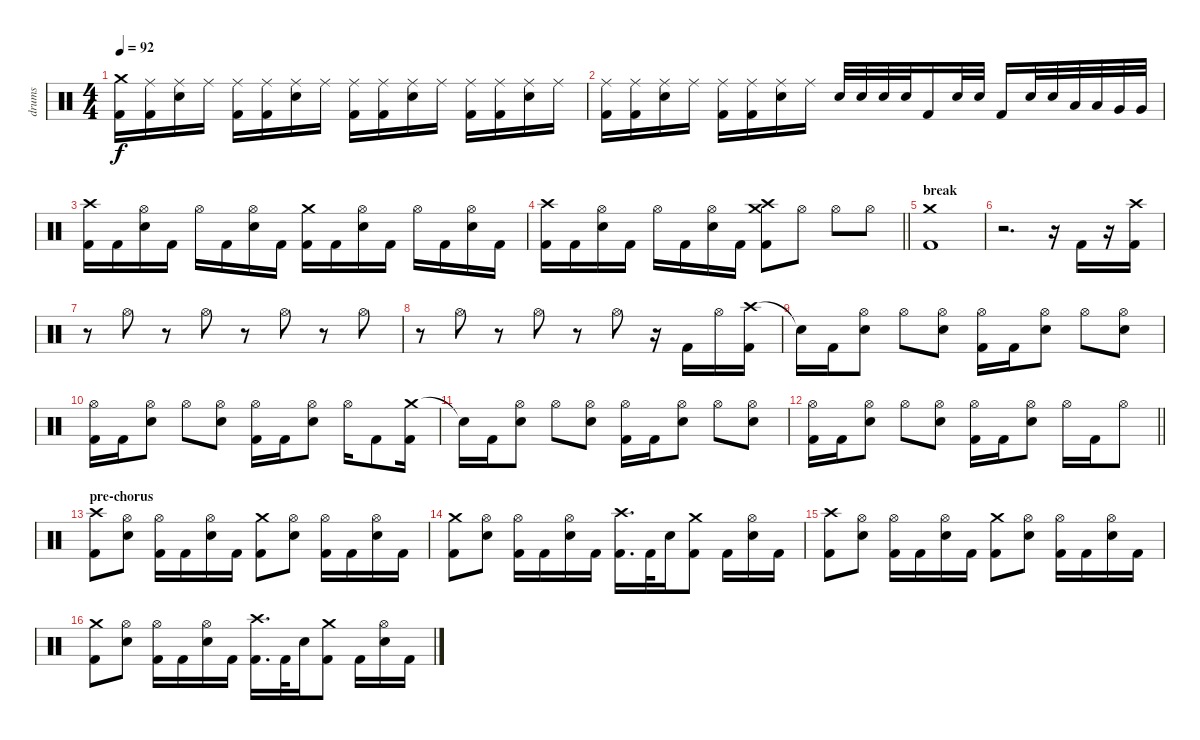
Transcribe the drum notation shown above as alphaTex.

\track ("drums" "drums") {instrument percussion}
\staff {score}
\articulation defaults
\ts (4 4)
\tempo 92
\clef neutral
\ks c
("Crash medium (hit)" "Kick (hit) 2").16{dy f} ("Ride (middle)" "Kick (hit) 2").16 ("Ride (middle)" "Snare (hit) 2").16 "Ride (middle)".16 ("Ride (middle)" "Kick (hit) 2").16 ("Ride (middle)" "Kick (hit) 2").16 ("Ride (middle)" "Snare (hit) 2").16 "Ride (middle)".16 ("Ride (middle)" "Kick (hit) 2").16 ("Ride (middle)" "Kick (hit) 2").16 ("Ride (middle)" "Snare (hit) 2").16 "Ride (middle)".16 ("Ride (middle)" "Kick (hit) 2").16 ("Ride (middle)" "Kick (hit) 2").16 ("Ride (middle)" "Snare (hit) 2").16 "Ride (middle)".16 |
("Ride (middle)" "Kick (hit) 2").16 ("Ride (middle)" "Kick (hit) 2").16 ("Ride (middle)" "Snare (hit) 2").16 "Ride (middle)".16 ("Ride (middle)" "Kick (hit) 2").16 ("Ride (middle)" "Kick (hit) 2").16 ("Ride (middle)" "Snare (hit) 2").16 "Ride (middle)".16 "Snare (hit) 2".32 "Snare (hit) 2".32 "Snare (hit) 2".32 "Snare (hit) 2".32 "Kick (hit) 2".16 "Snare (hit) 2".32 "Snare (hit) 2".32 "Kick (hit) 2".16 "Snare (hit) 2".32 "Snare (hit) 2".32 "Low Tom (hit)".32 "Low Tom (hit)".32 "Very Low Tom (hit)".32 "Very Low Tom (hit)".32 |
("Crash high (hit)" "Kick (hit) 2").16 "Kick (hit) 2".16 ("Hi-Hat (open)" "Snare (hit) 2").16 "Kick (hit) 2".16 "Hi-Hat (open)".16 "Kick (hit) 2".16 ("Hi-Hat (open)" "Snare (hit) 2").16 "Kick (hit) 2".16 ("Crash medium (hit)" "Kick (hit) 2").16 "Kick (hit) 2".16 ("Hi-Hat (open)" "Snare (hit) 2").16 "Kick (hit) 2".16 "Hi-Hat (open)".16 "Kick (hit) 2".16 ("Hi-Hat (open)" "Snare (hit) 2").16 "Kick (hit) 2".16 |
\barLineRight lightlight
("Crash high (hit)" "Kick (hit) 2").16 "Kick (hit) 2".16 ("Hi-Hat (open)" "Snare (hit) 2").16 "Kick (hit) 2".16 "Hi-Hat (open)".16 "Kick (hit) 2".16 ("Hi-Hat (open)" "Snare (hit) 2").16 "Kick (hit) 2".16 ("Crash medium (hit)" "Crash high (hit)" "Kick (hit) 2").8 "Hi-Hat (open)".8 "Hi-Hat (open)".8 "Hi-Hat (open)".8 |
\section ("" "break")
("Crash medium (hit)" "Kick (hit) 2").1 |
r.2{d} r.16 "Kick (hit) 2".16 r.16 ("Crash high (hit)" "Kick (hit) 2").16 |
r.8 "Hi-Hat (open)".8 r.8 "Hi-Hat (open)".8 r.8 "Hi-Hat (open)".8 r.8 "Hi-Hat (open)".8 |
r.8 "Hi-Hat (open)".8 r.8 "Hi-Hat (open)".8 r.8 "Hi-Hat (open)".8 r.16 "Kick (hit) 2".16 "Hi-Hat (open)".16 ("Crash high (hit)" "Kick (hit) 2").16 |
"Snare (hit)"{t}.16 "Kick (hit) 2".16 ("Hi-Hat (open)" "Snare (hit) 2").8 "Hi-Hat (open)".8 ("Hi-Hat (open)" "Snare (hit) 2").8 ("Hi-Hat (open)" "Kick (hit) 2").16 "Kick (hit) 2".16 ("Hi-Hat (open)" "Snare (hit) 2").8 "Hi-Hat (open)".8 ("Hi-Hat (open)" "Snare (hit) 2").8 |
("Hi-Hat (open)" "Kick (hit) 2").16 "Kick (hit) 2".16 ("Hi-Hat (open)" "Snare (hit) 2").8 "Hi-Hat (open)".8 ("Hi-Hat (open)" "Snare (hit) 2").8 ("Hi-Hat (open)" "Kick (hit) 2").16 "Kick (hit) 2".16 ("Hi-Hat (open)" "Snare (hit) 2").8 "Hi-Hat (open)".16 "Kick (hit) 2".8 ("Crash medium (hit)" "Kick (hit) 2").16 |
"Snare (hit)"{t}.16 "Kick (hit) 2".16 ("Hi-Hat (open)" "Snare (hit) 2").8 "Hi-Hat (open)".8 ("Hi-Hat (open)" "Snare (hit) 2").8 ("Hi-Hat (open)" "Kick (hit) 2").16 "Kick (hit) 2".16 ("Hi-Hat (open)" "Snare (hit) 2").8 "Hi-Hat (open)".8 ("Hi-Hat (open)" "Snare (hit) 2").8 |
\barLineRight lightlight
("Hi-Hat (open)" "Kick (hit) 2").16 "Kick (hit) 2".16 ("Hi-Hat (open)" "Snare (hit) 2").8 "Hi-Hat (open)".8 ("Hi-Hat (open)" "Snare (hit) 2").8 ("Hi-Hat (open)" "Kick (hit) 2").16 "Kick (hit) 2".16 ("Hi-Hat (open)" "Snare (hit) 2").8 "Hi-Hat (open)".16 "Kick (hit) 2".16 "Hi-Hat (open)".8 |
\section ("" "pre-chorus")
("Crash high (hit)" "Kick (hit) 2").8 ("Hi-Hat (open)" "Snare (hit) 2").8 ("Hi-Hat (open)" "Kick (hit) 2").16 "Kick (hit) 2".16 ("Hi-Hat (open)" "Snare (hit) 2").16 "Kick (hit) 2".16 ("Crash medium (hit)" "Kick (hit) 2").8 ("Hi-Hat (open)" "Snare (hit) 2").8 ("Hi-Hat (open)" "Kick (hit) 2").16 "Kick (hit) 2".16 ("Hi-Hat (open)" "Snare (hit) 2").16 "Kick (hit) 2".16 |
("Crash medium (hit)" "Kick (hit) 2").8 ("Hi-Hat (open)" "Snare (hit) 2").8 ("Hi-Hat (open)" "Kick (hit) 2").16 "Kick (hit) 2".16 ("Hi-Hat (open)" "Snare (hit) 2").16 "Kick (hit) 2".16 ("Crash high (hit)" "Kick (hit) 2").16{d} "Kick (hit) 2".32 "Snare (hit) 2".16 ("Crash medium (hit)" "Kick (hit) 2").8 "Kick (hit) 2".16 ("Hi-Hat (open)" "Snare (hit) 2").16 "Kick (hit) 2".16 |
("Crash high (hit)" "Kick (hit) 2").8 ("Hi-Hat (open)" "Snare (hit) 2").8 ("Hi-Hat (open)" "Kick (hit) 2").16 "Kick (hit) 2".16 ("Hi-Hat (open)" "Snare (hit) 2").16 "Kick (hit) 2".16 ("Crash medium (hit)" "Kick (hit) 2").8 ("Hi-Hat (open)" "Snare (hit) 2").8 ("Hi-Hat (open)" "Kick (hit) 2").16 "Kick (hit) 2".16 ("Hi-Hat (open)" "Snare (hit) 2").16 "Kick (hit) 2".16 |
("Crash medium (hit)" "Kick (hit) 2").8 ("Hi-Hat (open)" "Snare (hit) 2").8 ("Hi-Hat (open)" "Kick (hit) 2").16 "Kick (hit) 2".16 ("Hi-Hat (open)" "Snare (hit) 2").16 "Kick (hit) 2".16 ("Crash high (hit)" "Kick (hit) 2").16{d} "Kick (hit) 2".32 "Snare (hit) 2".16 ("Crash medium (hit)" "Kick (hit) 2").8 "Kick (hit) 2".16 ("Hi-Hat (open)" "Snare (hit) 2").16 "Kick (hit) 2".16
